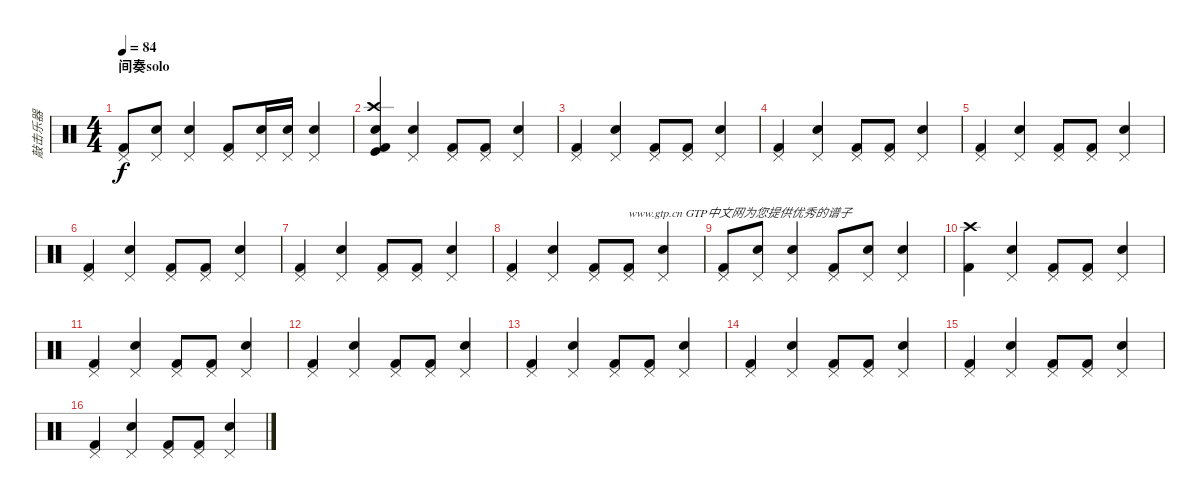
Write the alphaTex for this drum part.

\track ("敲击乐器" "敲击乐器") {instrument percussion}
\staff {score}
\articulation defaults
\ts (4 4)
\section ("" "间奏solo")
\tempo 84
\clef neutral
\ks c
("Kick (hit) 2" "Pedal Hi-Hat (hit)").8{dy f} ("Snare (hit) 2" "Pedal Hi-Hat (hit)").8 ("Snare (hit) 2" "Pedal Hi-Hat (hit)").4 ("Kick (hit) 2" "Pedal Hi-Hat (hit)").8 ("Snare (hit) 2" "Pedal Hi-Hat (hit)").16 ("Snare (hit) 2" "Pedal Hi-Hat (hit)").16 ("Snare (hit) 2" "Pedal Hi-Hat (hit)").4 |
("Kick (hit) 2" "Crash high (hit)" "Kick (hit)" "Metronome (bell)").4 ("Snare (hit) 2" "Pedal Hi-Hat (hit)").4 ("Kick (hit) 2" "Pedal Hi-Hat (hit)").8 ("Kick (hit) 2" "Pedal Hi-Hat (hit)").8 ("Snare (hit) 2" "Pedal Hi-Hat (hit)").4 |
("Kick (hit) 2" "Pedal Hi-Hat (hit)").4 ("Snare (hit) 2" "Pedal Hi-Hat (hit)").4 ("Kick (hit) 2" "Pedal Hi-Hat (hit)").8 ("Kick (hit) 2" "Pedal Hi-Hat (hit)").8 ("Snare (hit) 2" "Pedal Hi-Hat (hit)").4 |
("Kick (hit) 2" "Pedal Hi-Hat (hit)").4 ("Snare (hit) 2" "Pedal Hi-Hat (hit)").4 ("Kick (hit) 2" "Pedal Hi-Hat (hit)").8 ("Kick (hit) 2" "Pedal Hi-Hat (hit)").8 ("Snare (hit) 2" "Pedal Hi-Hat (hit)").4 |
("Kick (hit) 2" "Pedal Hi-Hat (hit)").4 ("Snare (hit) 2" "Pedal Hi-Hat (hit)").4 ("Kick (hit) 2" "Pedal Hi-Hat (hit)").8 ("Kick (hit) 2" "Pedal Hi-Hat (hit)").8 ("Snare (hit) 2" "Pedal Hi-Hat (hit)").4 |
("Kick (hit) 2" "Pedal Hi-Hat (hit)").4 ("Snare (hit) 2" "Pedal Hi-Hat (hit)").4 ("Kick (hit) 2" "Pedal Hi-Hat (hit)").8 ("Kick (hit) 2" "Pedal Hi-Hat (hit)").8 ("Snare (hit) 2" "Pedal Hi-Hat (hit)").4 |
("Kick (hit) 2" "Pedal Hi-Hat (hit)").4 ("Snare (hit) 2" "Pedal Hi-Hat (hit)").4 ("Kick (hit) 2" "Pedal Hi-Hat (hit)").8 ("Kick (hit) 2" "Pedal Hi-Hat (hit)").8 ("Snare (hit) 2" "Pedal Hi-Hat (hit)").4 |
("Kick (hit) 2" "Pedal Hi-Hat (hit)").4 ("Snare (hit) 2" "Pedal Hi-Hat (hit)").4 ("Kick (hit) 2" "Pedal Hi-Hat (hit)").8 ("Kick (hit) 2" "Pedal Hi-Hat (hit)").8{txt "www.gtp.cn GTP中文网为您提供优秀的谱子"} ("Snare (hit) 2" "Pedal Hi-Hat (hit)").4 |
("Kick (hit) 2" "Pedal Hi-Hat (hit)").8 ("Snare (hit) 2" "Pedal Hi-Hat (hit)").8 ("Snare (hit) 2" "Pedal Hi-Hat (hit)").4 ("Kick (hit) 2" "Pedal Hi-Hat (hit)").8 ("Snare (hit) 2" "Pedal Hi-Hat (hit)").8 ("Snare (hit) 2" "Pedal Hi-Hat (hit)").4 |
("Kick (hit) 2" "Crash high (hit)").4 ("Snare (hit) 2" "Pedal Hi-Hat (hit)").4 ("Kick (hit) 2" "Pedal Hi-Hat (hit)").8 ("Kick (hit) 2" "Pedal Hi-Hat (hit)").8 ("Snare (hit) 2" "Pedal Hi-Hat (hit)").4 |
("Kick (hit) 2" "Pedal Hi-Hat (hit)").4 ("Snare (hit) 2" "Pedal Hi-Hat (hit)").4 ("Kick (hit) 2" "Pedal Hi-Hat (hit)").8 ("Kick (hit) 2" "Pedal Hi-Hat (hit)").8 ("Snare (hit) 2" "Pedal Hi-Hat (hit)").4 |
("Kick (hit) 2" "Pedal Hi-Hat (hit)").4 ("Snare (hit) 2" "Pedal Hi-Hat (hit)").4 ("Kick (hit) 2" "Pedal Hi-Hat (hit)").8 ("Kick (hit) 2" "Pedal Hi-Hat (hit)").8 ("Snare (hit) 2" "Pedal Hi-Hat (hit)").4 |
("Kick (hit) 2" "Pedal Hi-Hat (hit)").4 ("Snare (hit) 2" "Pedal Hi-Hat (hit)").4 ("Kick (hit) 2" "Pedal Hi-Hat (hit)").8 ("Kick (hit) 2" "Pedal Hi-Hat (hit)").8 ("Snare (hit) 2" "Pedal Hi-Hat (hit)").4 |
("Kick (hit) 2" "Pedal Hi-Hat (hit)").4 ("Snare (hit) 2" "Pedal Hi-Hat (hit)").4 ("Kick (hit) 2" "Pedal Hi-Hat (hit)").8 ("Kick (hit) 2" "Pedal Hi-Hat (hit)").8 ("Snare (hit) 2" "Pedal Hi-Hat (hit)").4 |
("Kick (hit) 2" "Pedal Hi-Hat (hit)").4 ("Snare (hit) 2" "Pedal Hi-Hat (hit)").4 ("Kick (hit) 2" "Pedal Hi-Hat (hit)").8 ("Kick (hit) 2" "Pedal Hi-Hat (hit)").8 ("Snare (hit) 2" "Pedal Hi-Hat (hit)").4 |
("Kick (hit) 2" "Pedal Hi-Hat (hit)").4 ("Snare (hit) 2" "Pedal Hi-Hat (hit)").4 ("Kick (hit) 2" "Pedal Hi-Hat (hit)").8 ("Kick (hit) 2" "Pedal Hi-Hat (hit)").8 ("Snare (hit) 2" "Pedal Hi-Hat (hit)").4
